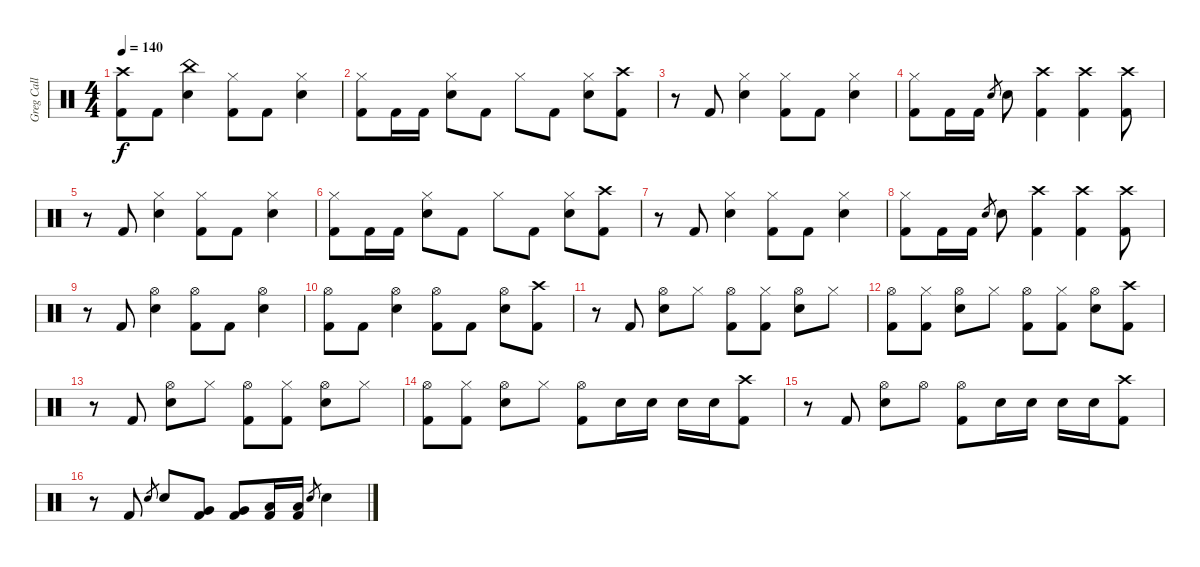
\track ("Greg Call (Drums)" "Greg Call ") {instrument percussion}
\staff {score}
\articulation defaults
\ts (4 4)
\tempo 140
\clef neutral
\ks c
("Crash high (hit)" "Kick (hit) 2").8{dy f} "Kick (hit) 2".8 ("China (hit)" "Snare (hit) 2").4 ("Hi-Hat (closed)" "Kick (hit) 2").8 "Kick (hit) 2".8 ("Hi-Hat (closed)" "Snare (hit) 2").4 |
("Hi-Hat (closed)" "Kick (hit) 2").8 "Kick (hit) 2".16 "Kick (hit) 2".16 ("Hi-Hat (closed)" "Snare (hit) 2").8 "Kick (hit) 2".8 "Hi-Hat (closed)".8 "Kick (hit) 2".8 ("Hi-Hat (closed)" "Snare (hit) 2").8 ("Crash high (hit)" "Kick (hit) 2").8 |
r.8 "Kick (hit) 2".8 ("Hi-Hat (closed)" "Snare (hit) 2").4 ("Hi-Hat (closed)" "Kick (hit) 2").8 "Kick (hit) 2".8 ("Hi-Hat (closed)" "Snare (hit) 2").4 |
("Hi-Hat (closed)" "Kick (hit) 2").8 "Kick (hit) 2".16 "Kick (hit) 2".16 "Snare (hit) 2".8{gr} "Snare (hit) 2".8 ("Crash high (hit)" "Kick (hit) 2").4 ("Crash high (hit)" "Kick (hit) 2").4 ("Crash high (hit)" "Kick (hit) 2").8 |
r.8 "Kick (hit) 2".8 ("Hi-Hat (closed)" "Snare (hit) 2").4 ("Hi-Hat (closed)" "Kick (hit) 2").8 "Kick (hit) 2".8 ("Hi-Hat (closed)" "Snare (hit) 2").4 |
("Hi-Hat (closed)" "Kick (hit) 2").8 "Kick (hit) 2".16 "Kick (hit) 2".16 ("Hi-Hat (closed)" "Snare (hit) 2").8 "Kick (hit) 2".8 "Hi-Hat (closed)".8 "Kick (hit) 2".8 ("Hi-Hat (closed)" "Snare (hit) 2").8 ("Crash high (hit)" "Kick (hit) 2").8 |
r.8 "Kick (hit) 2".8 ("Hi-Hat (closed)" "Snare (hit) 2").4 ("Hi-Hat (closed)" "Kick (hit) 2").8 "Kick (hit) 2".8 ("Hi-Hat (closed)" "Snare (hit) 2").4 |
("Hi-Hat (closed)" "Kick (hit) 2").8 "Kick (hit) 2".16 "Kick (hit) 2".16 "Snare (hit) 2".8{gr} "Snare (hit) 2".8 ("Crash high (hit)" "Kick (hit) 2").4 ("Crash high (hit)" "Kick (hit) 2").4 ("Crash high (hit)" "Kick (hit) 2").8 |
r.8 "Kick (hit) 2".8 ("Hi-Hat (open)" "Snare (hit) 2").4 ("Hi-Hat (open)" "Kick (hit) 2").8 "Kick (hit) 2".8 ("Hi-Hat (open)" "Snare (hit) 2").4 |
("Hi-Hat (open)" "Kick (hit) 2").8 "Kick (hit) 2".8 ("Hi-Hat (open)" "Snare (hit) 2").4 ("Hi-Hat (open)" "Kick (hit) 2").8 "Kick (hit) 2".8 ("Hi-Hat (open)" "Snare (hit) 2").8 ("Crash high (hit)" "Kick (hit) 2").8 |
r.8 "Kick (hit) 2".8 ("Hi-Hat (open)" "Snare (hit) 2").8 "Hi-Hat (closed)".8 ("Hi-Hat (open)" "Kick (hit) 2").8 ("Hi-Hat (closed)" "Kick (hit) 2").8 ("Hi-Hat (open)" "Snare (hit) 2").8 "Hi-Hat (closed)".8 |
("Hi-Hat (open)" "Kick (hit) 2").8 ("Hi-Hat (closed)" "Kick (hit) 2").8 ("Hi-Hat (open)" "Snare (hit) 2").8 "Hi-Hat (closed)".8 ("Hi-Hat (open)" "Kick (hit) 2").8 ("Hi-Hat (closed)" "Kick (hit) 2").8 ("Hi-Hat (open)" "Snare (hit) 2").8 ("Crash high (hit)" "Kick (hit) 2").8 |
r.8 "Kick (hit) 2".8 ("Hi-Hat (open)" "Snare (hit) 2").8 "Hi-Hat (closed)".8 ("Hi-Hat (open)" "Kick (hit) 2").8 ("Hi-Hat (closed)" "Kick (hit) 2").8 ("Hi-Hat (open)" "Snare (hit) 2").8 "Hi-Hat (closed)".8 |
("Hi-Hat (open)" "Kick (hit) 2").8 ("Hi-Hat (closed)" "Kick (hit) 2").8 ("Hi-Hat (open)" "Snare (hit) 2").8 "Hi-Hat (closed)".8 ("Hi-Hat (open)" "Kick (hit) 2").8 "Snare (hit) 2".16 "Snare (hit) 2".16 "Snare (hit) 2".16 "Snare (hit) 2".16 ("Crash high (hit)" "Kick (hit) 2").8 |
r.8 "Kick (hit) 2".8 ("Hi-Hat (open)" "Snare (hit) 2").8 "Hi-Hat (open)".8 ("Hi-Hat (open)" "Kick (hit) 2").8 "Snare (hit) 2".16 "Snare (hit) 2".16 "Snare (hit) 2".16 "Snare (hit) 2".16 ("Crash high (hit)" "Kick (hit) 2").8 |
r.8 "Kick (hit) 2".8 "Snare (hit) 2".8{gr} "Snare (hit) 2".8 ("Very Low Tom (hit)" "Kick (hit) 2").8 ("Very Low Tom (hit)" "Kick (hit) 2").8 ("Low Floor Tom (hit)" "Kick (hit) 2").16 ("Low Floor Tom (hit)" "Kick (hit) 2").16 "Snare (hit) 2".8{gr} "Snare (hit) 2".4
